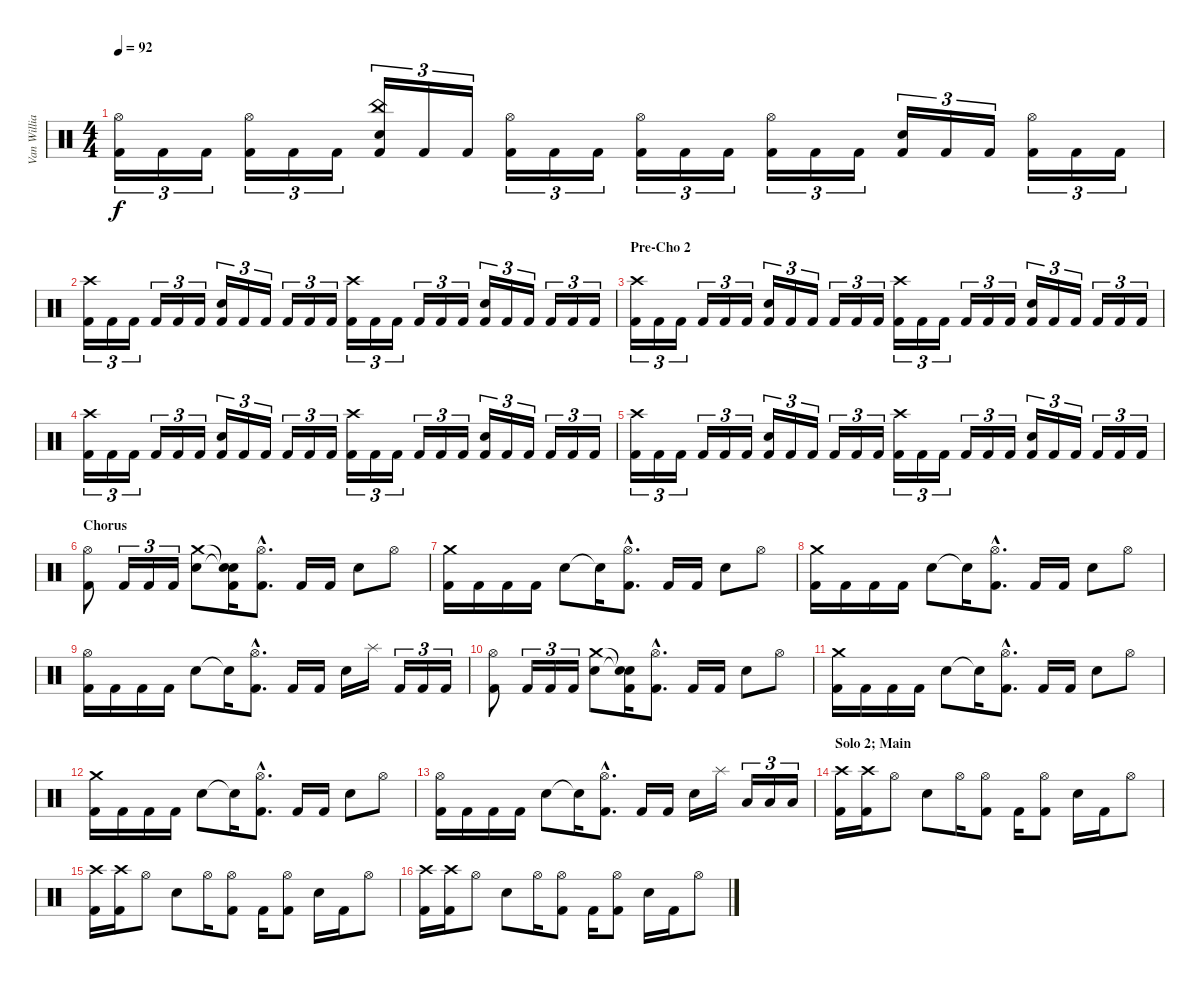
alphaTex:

\track ("Van Williams" "Van Willia") {instrument percussion}
\staff {score}
\articulation defaults
\ts (4 4)
\tempo 92
\clef neutral
\ks c
("Hi-Hat (open)" "Kick (hit) 2").16{tu (3 2) dy f} "Kick (hit) 2".16{tu (3 2)} "Kick (hit) 2".16{tu (3 2)} ("Hi-Hat (open)" "Kick (hit) 2").16{tu (3 2)} "Kick (hit) 2".16{tu (3 2)} "Kick (hit) 2".16{tu (3 2)} ("China (hit)" "Electric Snare (hit)" "Kick (hit) 2").16{tu (3 2)} "Kick (hit) 2".16{tu (3 2)} "Kick (hit) 2".16{tu (3 2)} ("Hi-Hat (open)" "Kick (hit) 2").16{tu (3 2)} "Kick (hit) 2".16{tu (3 2)} "Kick (hit) 2".16{tu (3 2)} ("Hi-Hat (open)" "Kick (hit) 2").16{tu (3 2)} "Kick (hit) 2".16{tu (3 2)} "Kick (hit) 2".16{tu (3 2)} ("Hi-Hat (open)" "Kick (hit) 2").16{tu (3 2)} "Kick (hit) 2".16{tu (3 2)} "Kick (hit) 2".16{tu (3 2)} ("Electric Snare (hit)" "Kick (hit) 2").16{tu (3 2)} "Kick (hit) 2".16{tu (3 2)} "Kick (hit) 2".16{tu (3 2)} ("Hi-Hat (open)" "Kick (hit) 2").16{tu (3 2)} "Kick (hit) 2".16{tu (3 2)} "Kick (hit) 2".16{tu (3 2)} |
("Crash high (hit)" "Kick (hit) 2").16{tu (3 2)} "Kick (hit) 2".16{tu (3 2)} "Kick (hit) 2".16{tu (3 2)} "Kick (hit) 2".16{tu (3 2)} "Kick (hit) 2".16{tu (3 2)} "Kick (hit) 2".16{tu (3 2)} ("Electric Snare (hit)" "Kick (hit) 2").16{tu (3 2)} "Kick (hit) 2".16{tu (3 2)} "Kick (hit) 2".16{tu (3 2)} "Kick (hit) 2".16{tu (3 2)} "Kick (hit) 2".16{tu (3 2)} "Kick (hit) 2".16{tu (3 2)} ("Crash high (hit)" "Kick (hit) 2").16{tu (3 2)} "Kick (hit) 2".16{tu (3 2)} "Kick (hit) 2".16{tu (3 2)} "Kick (hit) 2".16{tu (3 2)} "Kick (hit) 2".16{tu (3 2)} "Kick (hit) 2".16{tu (3 2)} ("Electric Snare (hit)" "Kick (hit) 2").16{tu (3 2)} "Kick (hit) 2".16{tu (3 2)} "Kick (hit) 2".16{tu (3 2)} "Kick (hit) 2".16{tu (3 2)} "Kick (hit) 2".16{tu (3 2)} "Kick (hit) 2".16{tu (3 2)} |
\section ("" "Pre-Cho 2")
("Crash high (hit)" "Kick (hit) 2").16{tu (3 2)} "Kick (hit) 2".16{tu (3 2)} "Kick (hit) 2".16{tu (3 2)} "Kick (hit) 2".16{tu (3 2)} "Kick (hit) 2".16{tu (3 2)} "Kick (hit) 2".16{tu (3 2)} ("Electric Snare (hit)" "Kick (hit) 2").16{tu (3 2)} "Kick (hit) 2".16{tu (3 2)} "Kick (hit) 2".16{tu (3 2)} "Kick (hit) 2".16{tu (3 2)} "Kick (hit) 2".16{tu (3 2)} "Kick (hit) 2".16{tu (3 2)} ("Crash high (hit)" "Kick (hit) 2").16{tu (3 2)} "Kick (hit) 2".16{tu (3 2)} "Kick (hit) 2".16{tu (3 2)} "Kick (hit) 2".16{tu (3 2)} "Kick (hit) 2".16{tu (3 2)} "Kick (hit) 2".16{tu (3 2)} ("Electric Snare (hit)" "Kick (hit) 2").16{tu (3 2)} "Kick (hit) 2".16{tu (3 2)} "Kick (hit) 2".16{tu (3 2)} "Kick (hit) 2".16{tu (3 2)} "Kick (hit) 2".16{tu (3 2)} "Kick (hit) 2".16{tu (3 2)} |
("Crash high (hit)" "Kick (hit) 2").16{tu (3 2)} "Kick (hit) 2".16{tu (3 2)} "Kick (hit) 2".16{tu (3 2)} "Kick (hit) 2".16{tu (3 2)} "Kick (hit) 2".16{tu (3 2)} "Kick (hit) 2".16{tu (3 2)} ("Electric Snare (hit)" "Kick (hit) 2").16{tu (3 2)} "Kick (hit) 2".16{tu (3 2)} "Kick (hit) 2".16{tu (3 2)} "Kick (hit) 2".16{tu (3 2)} "Kick (hit) 2".16{tu (3 2)} "Kick (hit) 2".16{tu (3 2)} ("Crash high (hit)" "Kick (hit) 2").16{tu (3 2)} "Kick (hit) 2".16{tu (3 2)} "Kick (hit) 2".16{tu (3 2)} "Kick (hit) 2".16{tu (3 2)} "Kick (hit) 2".16{tu (3 2)} "Kick (hit) 2".16{tu (3 2)} ("Electric Snare (hit)" "Kick (hit) 2").16{tu (3 2)} "Kick (hit) 2".16{tu (3 2)} "Kick (hit) 2".16{tu (3 2)} "Kick (hit) 2".16{tu (3 2)} "Kick (hit) 2".16{tu (3 2)} "Kick (hit) 2".16{tu (3 2)} |
("Crash high (hit)" "Kick (hit) 2").16{tu (3 2)} "Kick (hit) 2".16{tu (3 2)} "Kick (hit) 2".16{tu (3 2)} "Kick (hit) 2".16{tu (3 2)} "Kick (hit) 2".16{tu (3 2)} "Kick (hit) 2".16{tu (3 2)} ("Electric Snare (hit)" "Kick (hit) 2").16{tu (3 2)} "Kick (hit) 2".16{tu (3 2)} "Kick (hit) 2".16{tu (3 2)} "Kick (hit) 2".16{tu (3 2)} "Kick (hit) 2".16{tu (3 2)} "Kick (hit) 2".16{tu (3 2)} ("Crash high (hit)" "Kick (hit) 2").16{tu (3 2)} "Kick (hit) 2".16{tu (3 2)} "Kick (hit) 2".16{tu (3 2)} "Kick (hit) 2".16{tu (3 2)} "Kick (hit) 2".16{tu (3 2)} "Kick (hit) 2".16{tu (3 2)} ("Electric Snare (hit)" "Kick (hit) 2").16{tu (3 2)} "Kick (hit) 2".16{tu (3 2)} "Kick (hit) 2".16{tu (3 2)} "Kick (hit) 2".16{tu (3 2)} "Kick (hit) 2".16{tu (3 2)} "Kick (hit) 2".16{tu (3 2)} |
\section ("" "Chorus")
("Hi-Hat (open)" "Kick (hit) 2").8 "Kick (hit) 2".16{tu (3 2)} "Kick (hit) 2".16{tu (3 2)} "Kick (hit) 2".16{tu (3 2)} ("Crash medium (hit)" "Electric Snare (hit)").8 ("Snare (hit)"{t} "Snare (hit)"{t} "Kick (hit) 2").16 ("Hi-Hat (open)"{hac} "Kick (hit) 2"{hac}).8{d} "Kick (hit) 2".16 "Kick (hit) 2".16 "Electric Snare (hit)".8 "Hi-Hat (open)".8 |
("Crash medium (hit)" "Kick (hit) 2").16 "Kick (hit) 2".16 "Kick (hit) 2".16 "Kick (hit) 2".16 "Electric Snare (hit)".8 "Snare (hit)"{t}.16 ("Hi-Hat (open)"{hac} "Kick (hit) 2"{hac}).8{d} "Kick (hit) 2".16 "Kick (hit) 2".16 "Electric Snare (hit)".8 "Hi-Hat (open)".8 |
("Crash medium (hit)" "Kick (hit) 2").16 "Kick (hit) 2".16 "Kick (hit) 2".16 "Kick (hit) 2".16 "Electric Snare (hit)".8 "Snare (hit)"{t}.16 ("Hi-Hat (open)"{hac} "Kick (hit) 2"{hac}).8{d} "Kick (hit) 2".16 "Kick (hit) 2".16 "Electric Snare (hit)".8 "Hi-Hat (open)".8 |
("Hi-Hat (open)" "Kick (hit) 2").16 "Kick (hit) 2".16 "Kick (hit) 2".16 "Kick (hit) 2".16 "Electric Snare (hit)".8 "Snare (hit)"{t}.16 ("Hi-Hat (open)"{hac} "Kick (hit) 2"{hac}).8{d} "Kick (hit) 2".16 "Kick (hit) 2".16 "Electric Snare (hit)".16 "Splash (hit)".16 "Kick (hit) 2".16{tu (3 2)} "Kick (hit) 2".16{tu (3 2)} "Kick (hit) 2".16{tu (3 2)} |
("Hi-Hat (open)" "Kick (hit) 2").8 "Kick (hit) 2".16{tu (3 2)} "Kick (hit) 2".16{tu (3 2)} "Kick (hit) 2".16{tu (3 2)} ("Crash medium (hit)" "Electric Snare (hit)").8 ("Snare (hit)"{t} "Snare (hit)"{t} "Kick (hit) 2").16 ("Hi-Hat (open)"{hac} "Kick (hit) 2"{hac}).8{d} "Kick (hit) 2".16 "Kick (hit) 2".16 "Electric Snare (hit)".8 "Hi-Hat (open)".8 |
("Crash medium (hit)" "Kick (hit) 2").16 "Kick (hit) 2".16 "Kick (hit) 2".16 "Kick (hit) 2".16 "Electric Snare (hit)".8 "Snare (hit)"{t}.16 ("Hi-Hat (open)"{hac} "Kick (hit) 2"{hac}).8{d} "Kick (hit) 2".16 "Kick (hit) 2".16 "Electric Snare (hit)".8 "Hi-Hat (open)".8 |
("Crash medium (hit)" "Kick (hit) 2").16 "Kick (hit) 2".16 "Kick (hit) 2".16 "Kick (hit) 2".16 "Electric Snare (hit)".8 "Snare (hit)"{t}.16 ("Hi-Hat (open)"{hac} "Kick (hit) 2"{hac}).8{d} "Kick (hit) 2".16 "Kick (hit) 2".16 "Electric Snare (hit)".8 "Hi-Hat (open)".8 |
("Hi-Hat (open)" "Kick (hit) 2").16 "Kick (hit) 2".16 "Kick (hit) 2".16 "Kick (hit) 2".16 "Electric Snare (hit)".8 "Snare (hit)"{t}.16 ("Hi-Hat (open)"{hac} "Kick (hit) 2"{hac}).8{d} "Kick (hit) 2".16 "Kick (hit) 2".16 "Electric Snare (hit)".16 "Splash (hit)".16 "Low Tom (hit)".16{tu (3 2)} "Low Tom (hit)".16{tu (3 2)} "Low Tom (hit)".16{tu (3 2)} |
\section ("" "Solo 2; Main")
("Crash high (hit)" "Kick (hit) 2").16 ("Crash high (hit)" "Kick (hit) 2").16 "Hi-Hat (open)".8 "Electric Snare (hit)".8 "Hi-Hat (open)".16 ("Hi-Hat (open)" "Kick (hit) 2").8 "Kick (hit) 2".16 ("Hi-Hat (open)" "Kick (hit) 2").8 "Electric Snare (hit)".16 "Kick (hit) 2".16 "Hi-Hat (open)".8 |
("Crash high (hit)" "Kick (hit) 2").16 ("Crash high (hit)" "Kick (hit) 2").16 "Hi-Hat (open)".8 "Electric Snare (hit)".8 "Hi-Hat (open)".16 ("Hi-Hat (open)" "Kick (hit) 2").8 "Kick (hit) 2".16 ("Hi-Hat (open)" "Kick (hit) 2").8 "Electric Snare (hit)".16 "Kick (hit) 2".16 "Hi-Hat (open)".8 |
("Crash high (hit)" "Kick (hit) 2").16 ("Crash high (hit)" "Kick (hit) 2").16 "Hi-Hat (open)".8 "Electric Snare (hit)".8 "Hi-Hat (open)".16 ("Hi-Hat (open)" "Kick (hit) 2").8 "Kick (hit) 2".16 ("Hi-Hat (open)" "Kick (hit) 2").8 "Electric Snare (hit)".16 "Kick (hit) 2".16 "Hi-Hat (open)".8
